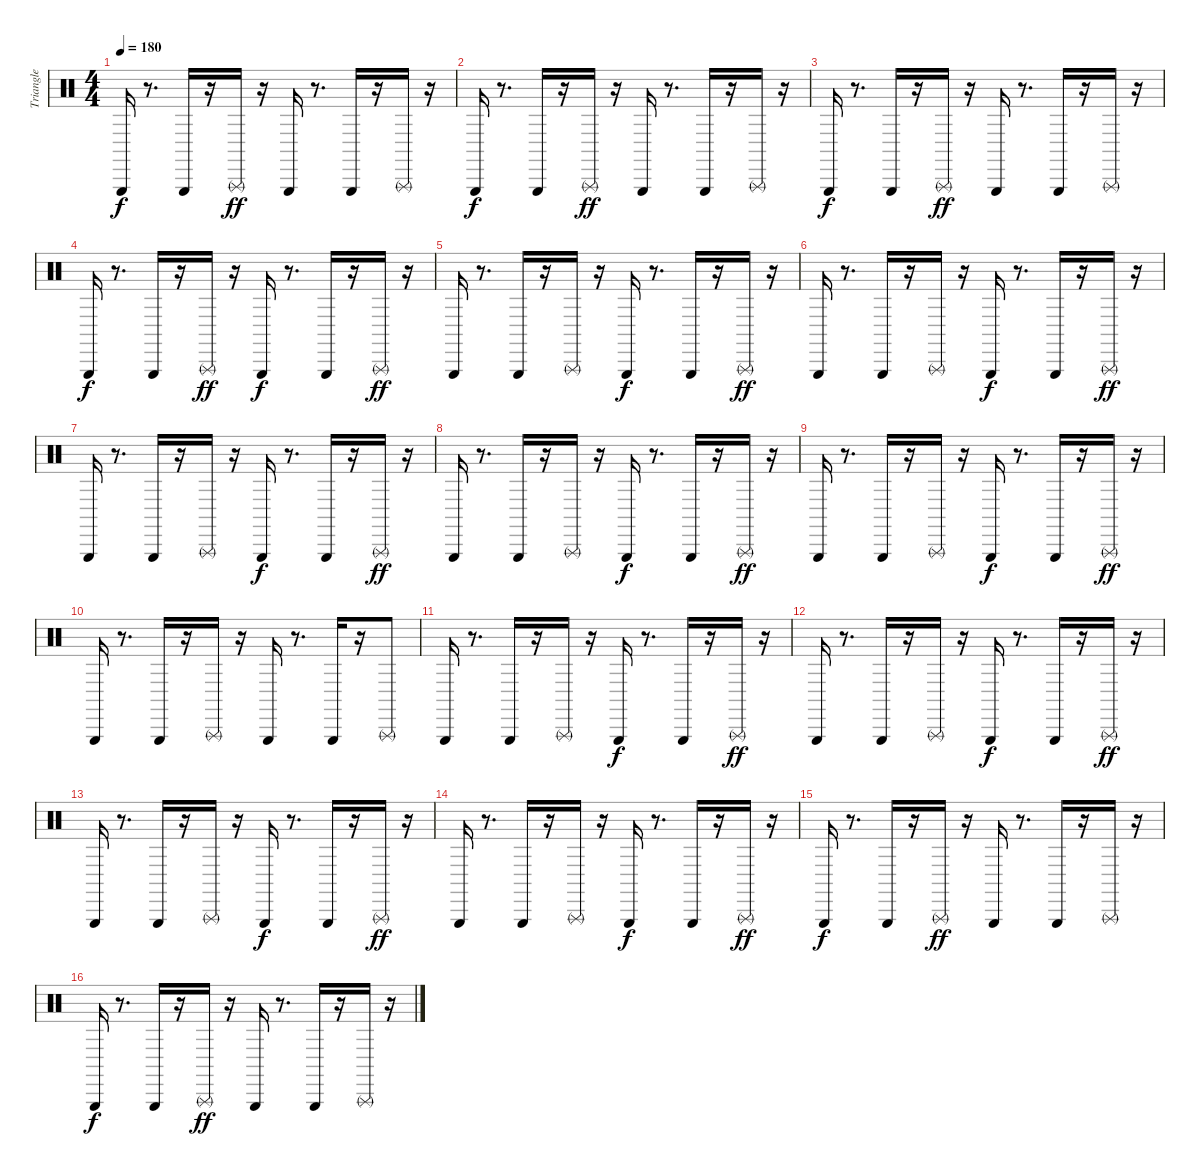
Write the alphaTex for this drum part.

\track ("Triangle" "Triangle") {instrument percussion}
\staff {score}
\articulation defaults
\ts (4 4)
\tempo 180
\clef neutral
\ks c "Triangle (hit)".16{dy f}
r.8{d} "Triangle (hit)".16 r.16 "Triangle (rnute)".16{dy ff} r.16 "Triangle (hit)".16 r.8{d} "Triangle (hit)".16 r.16 "Triangle (rnute)".16 r.16 |
"Triangle (hit)".16{dy f} r.8{d} "Triangle (hit)".16 r.16 "Triangle (rnute)".16{dy ff} r.16 "Triangle (hit)".16 r.8{d} "Triangle (hit)".16 r.16 "Triangle (rnute)".16 r.16 |
"Triangle (hit)".16{dy f} r.8{d} "Triangle (hit)".16 r.16 "Triangle (rnute)".16{dy ff} r.16 "Triangle (hit)".16 r.8{d} "Triangle (hit)".16 r.16 "Triangle (rnute)".16 r.16 |
"Triangle (hit)".16{dy f} r.8{d} "Triangle (hit)".16 r.16 "Triangle (rnute)".16{dy ff} r.16 "Triangle (hit)".16{dy f} r.8{d} "Triangle (hit)".16 r.16 "Triangle (rnute)".16{dy ff} r.16 |
"Triangle (hit)".16 r.8{d} "Triangle (hit)".16 r.16 "Triangle (rnute)".16 r.16 "Triangle (hit)".16{dy f} r.8{d} "Triangle (hit)".16 r.16 "Triangle (rnute)".16{dy ff} r.16 |
"Triangle (hit)".16 r.8{d} "Triangle (hit)".16 r.16 "Triangle (rnute)".16 r.16 "Triangle (hit)".16{dy f} r.8{d} "Triangle (hit)".16 r.16 "Triangle (rnute)".16{dy ff} r.16 |
"Triangle (hit)".16 r.8{d} "Triangle (hit)".16 r.16 "Triangle (rnute)".16 r.16 "Triangle (hit)".16{dy f} r.8{d} "Triangle (hit)".16 r.16 "Triangle (rnute)".16{dy ff} r.16 |
"Triangle (hit)".16 r.8{d} "Triangle (hit)".16 r.16 "Triangle (rnute)".16 r.16 "Triangle (hit)".16{dy f} r.8{d} "Triangle (hit)".16 r.16 "Triangle (rnute)".16{dy ff} r.16 |
"Triangle (hit)".16 r.8{d} "Triangle (hit)".16 r.16 "Triangle (rnute)".16 r.16 "Triangle (hit)".16{dy f} r.8{d} "Triangle (hit)".16 r.16 "Triangle (rnute)".16{dy ff} r.16 |
"Triangle (hit)".16 r.8{d} "Triangle (hit)".16 r.16 "Triangle (rnute)".16 r.16 "Triangle (hit)".16 r.8{d} "Triangle (hit)".16 r.16 "Triangle (rnute)".8 |
"Triangle (hit)".16 r.8{d} "Triangle (hit)".16 r.16 "Triangle (rnute)".16 r.16 "Triangle (hit)".16{dy f} r.8{d} "Triangle (hit)".16 r.16 "Triangle (rnute)".16{dy ff} r.16 |
"Triangle (hit)".16 r.8{d} "Triangle (hit)".16 r.16 "Triangle (rnute)".16 r.16 "Triangle (hit)".16{dy f} r.8{d} "Triangle (hit)".16 r.16 "Triangle (rnute)".16{dy ff} r.16 |
"Triangle (hit)".16 r.8{d} "Triangle (hit)".16 r.16 "Triangle (rnute)".16 r.16 "Triangle (hit)".16{dy f} r.8{d} "Triangle (hit)".16 r.16 "Triangle (rnute)".16{dy ff} r.16 |
"Triangle (hit)".16 r.8{d} "Triangle (hit)".16 r.16 "Triangle (rnute)".16 r.16 "Triangle (hit)".16{dy f} r.8{d} "Triangle (hit)".16 r.16 "Triangle (rnute)".16{dy ff} r.16 |
"Triangle (hit)".16{dy f} r.8{d} "Triangle (hit)".16 r.16 "Triangle (rnute)".16{dy ff} r.16 "Triangle (hit)".16 r.8{d} "Triangle (hit)".16 r.16 "Triangle (rnute)".16 r.16 |
"Triangle (hit)".16{dy f} r.8{d} "Triangle (hit)".16 r.16 "Triangle (rnute)".16{dy ff} r.16 "Triangle (hit)".16 r.8{d} "Triangle (hit)".16 r.16 "Triangle (rnute)".16 r.16
